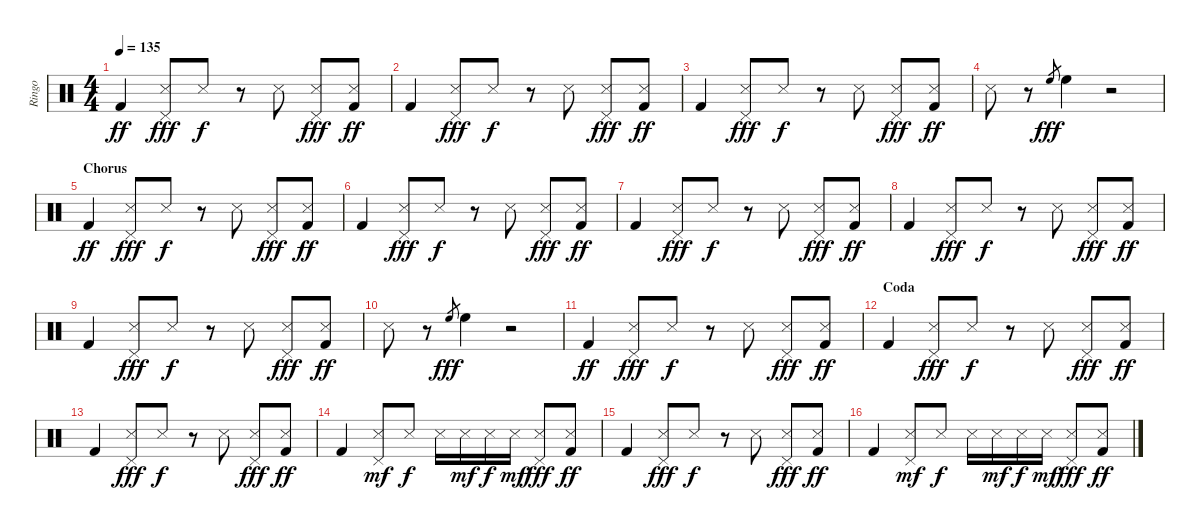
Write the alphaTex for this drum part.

\track ("Ringo" "Ringo") {instrument percussion}
\staff {score}
\articulation defaults
\ts (4 4)
\tempo 135
\clef neutral
\ks c "Kick (hit) 2".4{dy ff}
("Pedal Hi-Hat (hit)" "Snare (side stick) 3").8{dy fff} "Snare (side stick) 3".8{dy f} r.8 "Snare (side stick) 3".8 ("Pedal Hi-Hat (hit)" "Snare (side stick) 3").8{dy fff} ("Snare (side stick) 3" "Kick (hit) 2").8{dy ff} |
"Kick (hit) 2".4 ("Pedal Hi-Hat (hit)" "Snare (side stick) 3").8{dy fff} "Snare (side stick) 3".8{dy f} r.8 "Snare (side stick) 3".8 ("Pedal Hi-Hat (hit)" "Snare (side stick) 3").8{dy fff} ("Snare (side stick) 3" "Kick (hit) 2").8{dy ff} |
"Kick (hit) 2".4 ("Pedal Hi-Hat (hit)" "Snare (side stick) 3").8{dy fff} "Snare (side stick) 3".8{dy f} r.8 "Snare (side stick) 3".8 ("Pedal Hi-Hat (hit)" "Snare (side stick) 3").8{dy fff} ("Snare (side stick) 3" "Kick (hit) 2").8{dy ff} |
"Snare (side stick) 3".8 r.8 "High Floor Tom (hit)".8{gr dy fff} "High Floor Tom (hit)".4 r.2 |
\section ("" "Chorus")
"Kick (hit) 2".4{dy ff} ("Pedal Hi-Hat (hit)" "Snare (side stick) 3").8{dy fff} "Snare (side stick) 3".8{dy f} r.8 "Snare (side stick) 3".8 ("Pedal Hi-Hat (hit)" "Snare (side stick) 3").8{dy fff} ("Snare (side stick) 3" "Kick (hit) 2").8{dy ff} |
"Kick (hit) 2".4 ("Pedal Hi-Hat (hit)" "Snare (side stick) 3").8{dy fff} "Snare (side stick) 3".8{dy f} r.8 "Snare (side stick) 3".8 ("Pedal Hi-Hat (hit)" "Snare (side stick) 3").8{dy fff} ("Snare (side stick) 3" "Kick (hit) 2").8{dy ff} |
"Kick (hit) 2".4 ("Pedal Hi-Hat (hit)" "Snare (side stick) 3").8{dy fff} "Snare (side stick) 3".8{dy f} r.8 "Snare (side stick) 3".8 ("Pedal Hi-Hat (hit)" "Snare (side stick) 3").8{dy fff} ("Snare (side stick) 3" "Kick (hit) 2").8{dy ff} |
"Kick (hit) 2".4 ("Pedal Hi-Hat (hit)" "Snare (side stick) 3").8{dy fff} "Snare (side stick) 3".8{dy f} r.8 "Snare (side stick) 3".8 ("Pedal Hi-Hat (hit)" "Snare (side stick) 3").8{dy fff} ("Snare (side stick) 3" "Kick (hit) 2").8{dy ff} |
"Kick (hit) 2".4 ("Pedal Hi-Hat (hit)" "Snare (side stick) 3").8{dy fff} "Snare (side stick) 3".8{dy f} r.8 "Snare (side stick) 3".8 ("Pedal Hi-Hat (hit)" "Snare (side stick) 3").8{dy fff} ("Snare (side stick) 3" "Kick (hit) 2").8{dy ff} |
"Snare (side stick) 3".8 r.8 "High Floor Tom (hit)".8{gr dy fff} "High Floor Tom (hit)".4 r.2 |
"Kick (hit) 2".4{dy ff} ("Pedal Hi-Hat (hit)" "Snare (side stick) 3").8{dy fff} "Snare (side stick) 3".8{dy f} r.8 "Snare (side stick) 3".8 ("Pedal Hi-Hat (hit)" "Snare (side stick) 3").8{dy fff} ("Snare (side stick) 3" "Kick (hit) 2").8{dy ff} |
\section ("" "Coda")
"Kick (hit) 2".4 ("Pedal Hi-Hat (hit)" "Snare (side stick) 3").8{dy fff} "Snare (side stick) 3".8{dy f} r.8 "Snare (side stick) 3".8 ("Pedal Hi-Hat (hit)" "Snare (side stick) 3").8{dy fff} ("Snare (side stick) 3" "Kick (hit) 2").8{dy ff} |
"Kick (hit) 2".4 ("Pedal Hi-Hat (hit)" "Snare (side stick) 3").8{dy fff} "Snare (side stick) 3".8{dy f} r.8 "Snare (side stick) 3".8 ("Pedal Hi-Hat (hit)" "Snare (side stick) 3").8{dy fff} ("Snare (side stick) 3" "Kick (hit) 2").8{dy ff} |
"Kick (hit) 2".4 ("Pedal Hi-Hat (hit)" "Snare (side stick) 3").8{dy mf} "Snare (side stick) 3".8{dy f} "Snare (side stick) 3".16 "Snare (side stick) 3".16{dy mf} "Snare (side stick) 3".16{dy f} "Snare (side stick) 3".16{dy mf} ("Pedal Hi-Hat (hit)" "Snare (side stick) 3").8{dy fff} ("Snare (side stick) 3" "Kick (hit) 2").8{dy ff} |
"Kick (hit) 2".4 ("Pedal Hi-Hat (hit)" "Snare (side stick) 3").8{dy fff} "Snare (side stick) 3".8{dy f} r.8 "Snare (side stick) 3".8 ("Pedal Hi-Hat (hit)" "Snare (side stick) 3").8{dy fff} ("Snare (side stick) 3" "Kick (hit) 2").8{dy ff} |
"Kick (hit) 2".4{volume 11} ("Pedal Hi-Hat (hit)" "Snare (side stick) 3").8{dy mf} "Snare (side stick) 3".8{dy f} "Snare (side stick) 3".16 "Snare (side stick) 3".16{dy mf} "Snare (side stick) 3".16{dy f} "Snare (side stick) 3".16{dy mf} ("Pedal Hi-Hat (hit)" "Snare (side stick) 3").8{dy fff} ("Snare (side stick) 3" "Kick (hit) 2").8{dy ff}
